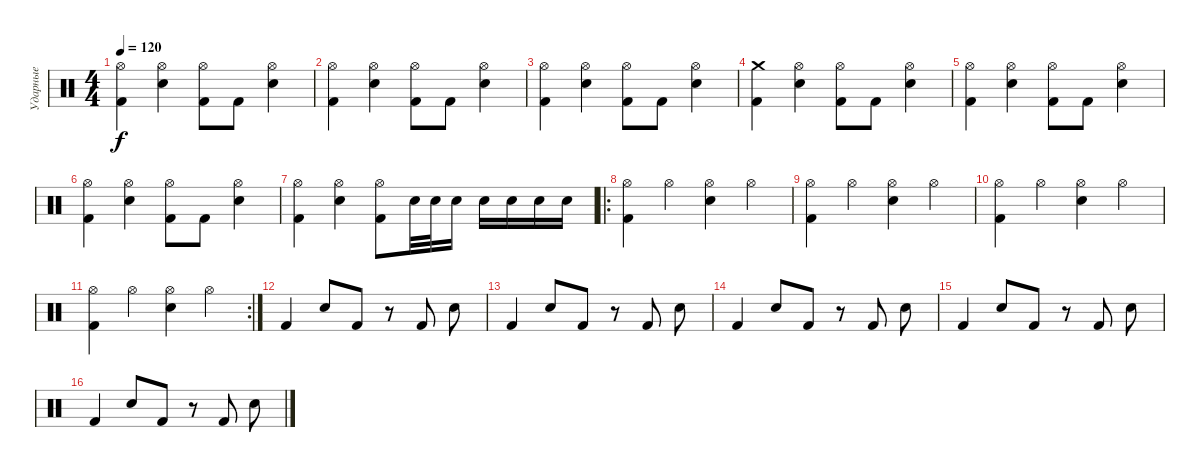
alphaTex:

\track ("Ударные" "Ударные") {instrument percussion}
\staff {score}
\articulation defaults
\ts (4 4)
\tempo 120
\clef neutral
\ks c
("Kick (hit) 2" "Hi-Hat (open)").4{dy f} ("Electric Snare (hit)" "Hi-Hat (open)").4 ("Kick (hit) 2" "Hi-Hat (open)").8 "Kick (hit) 2".8 ("Electric Snare (hit)" "Hi-Hat (open)").4 |
("Kick (hit) 2" "Hi-Hat (open)").4 ("Electric Snare (hit)" "Hi-Hat (open)").4 ("Kick (hit) 2" "Hi-Hat (open)").8 "Kick (hit) 2".8 ("Electric Snare (hit)" "Hi-Hat (open)").4 |
("Kick (hit) 2" "Hi-Hat (open)").4 ("Electric Snare (hit)" "Hi-Hat (open)").4 ("Kick (hit) 2" "Hi-Hat (open)").8 "Kick (hit) 2".8 ("Electric Snare (hit)" "Hi-Hat (open)").4 |
("Kick (hit) 2" "Crash medium (hit)").4 ("Electric Snare (hit)" "Hi-Hat (open)").4 ("Kick (hit) 2" "Hi-Hat (open)").8 "Kick (hit) 2".8 ("Electric Snare (hit)" "Hi-Hat (open)").4 |
("Kick (hit) 2" "Hi-Hat (open)").4 ("Electric Snare (hit)" "Hi-Hat (open)").4 ("Kick (hit) 2" "Hi-Hat (open)").8 "Kick (hit) 2".8 ("Electric Snare (hit)" "Hi-Hat (open)").4 |
("Kick (hit) 2" "Hi-Hat (open)").4 ("Electric Snare (hit)" "Hi-Hat (open)").4 ("Kick (hit) 2" "Hi-Hat (open)").8 "Kick (hit) 2".8 ("Electric Snare (hit)" "Hi-Hat (open)").4 |
("Kick (hit) 2" "Hi-Hat (open)").4 ("Electric Snare (hit)" "Hi-Hat (open)").4 ("Kick (hit) 2" "Hi-Hat (open)").8 "Electric Snare (hit)".32 "Electric Snare (hit)".32 "Electric Snare (hit)".16 "Electric Snare (hit)".16 "Electric Snare (hit)".16 "Electric Snare (hit)".16 "Electric Snare (hit)".16 |
\ro
("Kick (hit) 2" "Hi-Hat (open)").4 "Hi-Hat (open)".4 ("Electric Snare (hit)" "Hi-Hat (open)").4 "Hi-Hat (open)".4 |
("Kick (hit) 2" "Hi-Hat (open)").4 "Hi-Hat (open)".4 ("Electric Snare (hit)" "Hi-Hat (open)").4 "Hi-Hat (open)".4 |
("Kick (hit) 2" "Hi-Hat (open)").4 "Hi-Hat (open)".4 ("Electric Snare (hit)" "Hi-Hat (open)").4 "Hi-Hat (open)".4 |
\rc 2
("Kick (hit) 2" "Hi-Hat (open)").4 "Hi-Hat (open)".4 ("Electric Snare (hit)" "Hi-Hat (open)").4 "Hi-Hat (open)".4 |
"Kick (hit) 2".4 "Electric Snare (hit)".8 "Kick (hit) 2".8 r.8 "Kick (hit) 2".8 "Electric Snare (hit)".8 |
"Kick (hit) 2".4 "Electric Snare (hit)".8 "Kick (hit) 2".8 r.8 "Kick (hit) 2".8 "Electric Snare (hit)".8 |
"Kick (hit) 2".4 "Electric Snare (hit)".8 "Kick (hit) 2".8 r.8 "Kick (hit) 2".8 "Electric Snare (hit)".8 |
"Kick (hit) 2".4 "Electric Snare (hit)".8 "Kick (hit) 2".8 r.8 "Kick (hit) 2".8 "Electric Snare (hit)".8 |
"Kick (hit) 2".4 "Electric Snare (hit)".8 "Kick (hit) 2".8 r.8 "Kick (hit) 2".8 "Electric Snare (hit)".8
